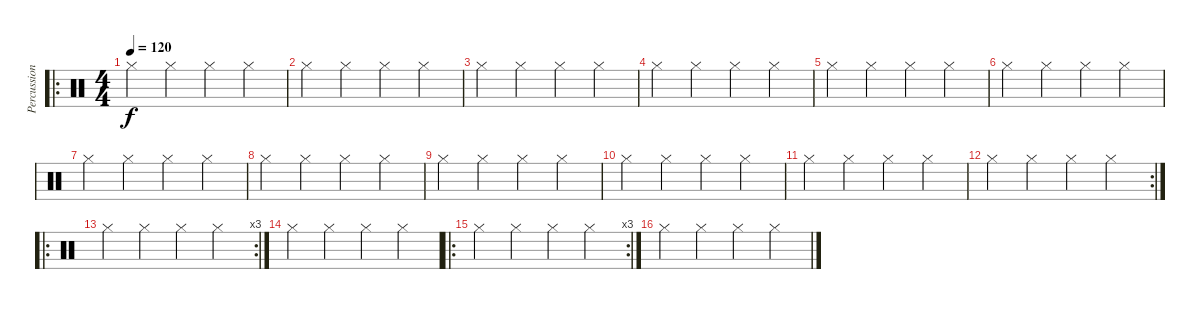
\track ("Percussioni" "Percussion") {instrument percussion}
\staff {score}
\articulation defaults
\ro
\ts (4 4)
\tempo 120
\clef neutral
\ks c "Hi-Hat (closed)".4{dy f} "Hi-Hat (closed)".4 "Hi-Hat (closed)".4 "Hi-Hat (closed)".4
|
"Hi-Hat (closed)".4 "Hi-Hat (closed)".4 "Hi-Hat (closed)".4 "Hi-Hat (closed)".4 |
"Hi-Hat (closed)".4 "Hi-Hat (closed)".4 "Hi-Hat (closed)".4 "Hi-Hat (closed)".4 |
"Hi-Hat (closed)".4 "Hi-Hat (closed)".4 "Hi-Hat (closed)".4 "Hi-Hat (closed)".4 |
"Hi-Hat (closed)".4 "Hi-Hat (closed)".4 "Hi-Hat (closed)".4 "Hi-Hat (closed)".4 |
"Hi-Hat (closed)".4 "Hi-Hat (closed)".4 "Hi-Hat (closed)".4 "Hi-Hat (closed)".4 |
"Hi-Hat (closed)".4 "Hi-Hat (closed)".4 "Hi-Hat (closed)".4 "Hi-Hat (closed)".4 |
"Hi-Hat (closed)".4 "Hi-Hat (closed)".4 "Hi-Hat (closed)".4 "Hi-Hat (closed)".4 |
"Hi-Hat (closed)".4 "Hi-Hat (closed)".4 "Hi-Hat (closed)".4 "Hi-Hat (closed)".4 |
"Hi-Hat (closed)".4 "Hi-Hat (closed)".4 "Hi-Hat (closed)".4 "Hi-Hat (closed)".4 |
"Hi-Hat (closed)".4 "Hi-Hat (closed)".4 "Hi-Hat (closed)".4 "Hi-Hat (closed)".4 |
\rc 2 "Hi-Hat (closed)".4 "Hi-Hat (closed)".4 "Hi-Hat (closed)".4 "Hi-Hat (closed)".4
|
\ro
\rc 3 "Hi-Hat (closed)".4 "Hi-Hat (closed)".4 "Hi-Hat (closed)".4 "Hi-Hat (closed)".4
|
"Hi-Hat (closed)".4 "Hi-Hat (closed)".4 "Hi-Hat (closed)".4 "Hi-Hat (closed)".4 |
\ro
\rc 3 "Hi-Hat (closed)".4 "Hi-Hat (closed)".4 "Hi-Hat (closed)".4 "Hi-Hat (closed)".4
|
"Hi-Hat (closed)".4 "Hi-Hat (closed)".4 "Hi-Hat (closed)".4 "Hi-Hat (closed)".4
